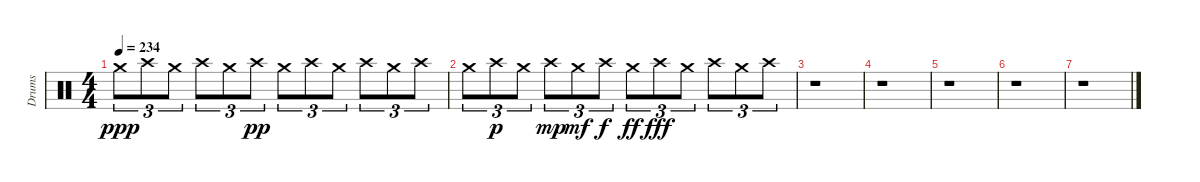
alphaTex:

\track ("Drums" "Drums") {instrument percussion}
\staff {score}
\articulation defaults
\ts (4 4)
\tempo 234
\clef neutral
\ks aminor "Crash medium (hit)".8{tu (3 2) dy ppp} "Crash high (hit)".8{tu (3 2)} "Crash medium (hit)".8{tu (3 2)} "Crash high (hit)".8{tu (3 2)} "Crash medium (hit)".8{tu (3 2)} "Crash high (hit)".8{tu (3 2) dy pp} "Crash medium (hit)".8{tu (3 2)} "Crash high (hit)".8{tu (3 2)} "Crash medium (hit)".8{tu (3 2)} "Crash high (hit)".8{tu (3 2)} "Crash medium (hit)".8{tu (3 2)} "Crash high (hit)".8{tu (3 2)}
|
"Crash medium (hit)".8{tu (3 2)} "Crash high (hit)".8{tu (3 2) dy p} "Crash medium (hit)".8{tu (3 2)} "Crash high (hit)".8{tu (3 2) dy mp} "Crash medium (hit)".8{tu (3 2) dy mf} "Crash high (hit)".8{tu (3 2) dy f} "Crash medium (hit)".8{tu (3 2) dy ff} "Crash high (hit)".8{tu (3 2) dy fff} "Crash medium (hit)".8{tu (3 2)} "Crash high (hit)".8{tu (3 2)} "Crash medium (hit)".8{tu (3 2)} "Crash high (hit)".8{tu (3 2)} |
r.1 |
r.1 |
r.1 |
r.1 |
r.1
